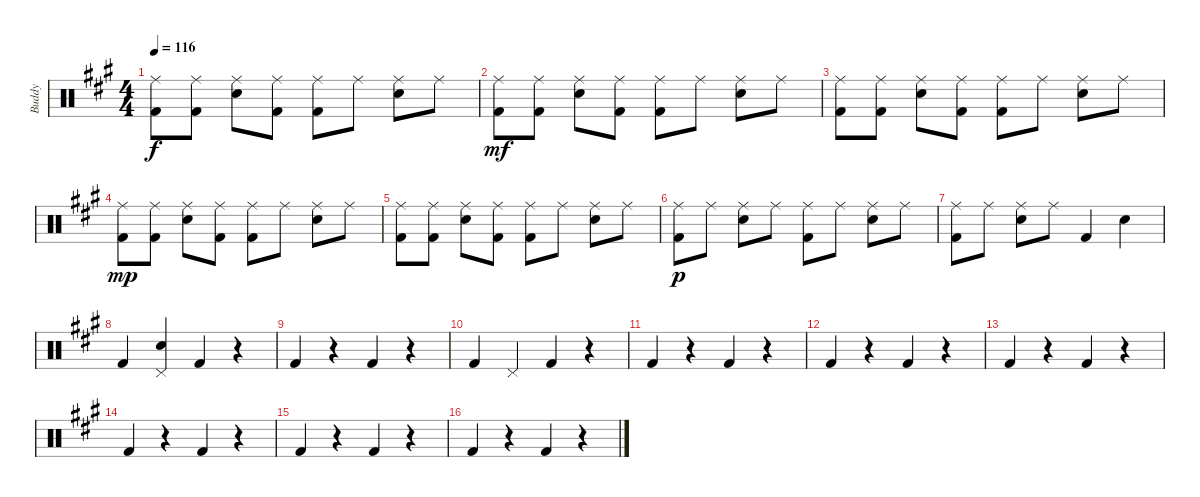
\track ("Buddy" "Buddy") {instrument percussion}
\staff {score}
\articulation defaults
\ts (4 4)
\tempo 116
\clef neutral
\ks a
("Ride (middle)" "Kick (hit) 2").8{dy f} ("Ride (middle)" "Kick (hit) 2").8 ("Ride (middle)" "Snare (hit) 2").8 ("Ride (middle)" "Kick (hit) 2").8 ("Ride (middle)" "Kick (hit) 2").8 "Ride (middle)".8 ("Ride (middle)" "Snare (hit) 2").8 "Ride (middle)".8 |
("Ride (middle)" "Kick (hit) 2").8{dy mf} ("Ride (middle)" "Kick (hit) 2").8 ("Ride (middle)" "Snare (hit) 2").8 ("Ride (middle)" "Kick (hit) 2").8 ("Ride (middle)" "Kick (hit) 2").8 "Ride (middle)".8 ("Ride (middle)" "Snare (hit) 2").8 "Ride (middle)".8 |
("Ride (middle)" "Kick (hit) 2").8 ("Ride (middle)" "Kick (hit) 2").8 ("Ride (middle)" "Snare (hit) 2").8 ("Ride (middle)" "Kick (hit) 2").8 ("Ride (middle)" "Kick (hit) 2").8 "Ride (middle)".8 ("Ride (middle)" "Snare (hit) 2").8 "Ride (middle)".8 |
("Ride (middle)" "Kick (hit) 2").8{dy mp} ("Ride (middle)" "Kick (hit) 2").8 ("Ride (middle)" "Snare (hit) 2").8 ("Ride (middle)" "Kick (hit) 2").8 ("Ride (middle)" "Kick (hit) 2").8 "Ride (middle)".8 ("Ride (middle)" "Snare (hit) 2").8 "Ride (middle)".8 |
("Ride (middle)" "Kick (hit) 2").8 ("Ride (middle)" "Kick (hit) 2").8 ("Ride (middle)" "Snare (hit) 2").8 ("Ride (middle)" "Kick (hit) 2").8 ("Ride (middle)" "Kick (hit) 2").8 "Ride (middle)".8 ("Ride (middle)" "Snare (hit) 2").8 "Ride (middle)".8 |
("Ride (middle)" "Kick (hit) 2").8{dy p} "Ride (middle)".8 ("Ride (middle)" "Snare (hit) 2").8 "Ride (middle)".8 ("Ride (middle)" "Kick (hit) 2").8 "Ride (middle)".8 ("Ride (middle)" "Snare (hit) 2").8 "Ride (middle)".8 |
("Ride (middle)" "Kick (hit) 2").8 "Ride (middle)".8 ("Ride (middle)" "Snare (hit) 2").8 "Ride (middle)".8 "Kick (hit) 2".4 "Snare (hit) 2".4 |
"Kick (hit) 2".4 ("Snare (hit) 2" "Pedal Hi-Hat (hit)").4 "Kick (hit) 2".4 r.4 |
"Kick (hit) 2".4 r.4 "Kick (hit) 2".4 r.4 |
"Kick (hit) 2".4 "Pedal Hi-Hat (hit)".4 "Kick (hit) 2".4 r.4 |
"Kick (hit) 2".4 r.4 "Kick (hit) 2".4 r.4 |
"Kick (hit) 2".4 r.4 "Kick (hit) 2".4 r.4 |
"Kick (hit) 2".4 r.4 "Kick (hit) 2".4 r.4 |
"Kick (hit) 2".4 r.4 "Kick (hit) 2".4 r.4 |
"Kick (hit) 2".4 r.4 "Kick (hit) 2".4 r.4 |
"Kick (hit) 2".4 r.4 "Kick (hit) 2".4 r.4
